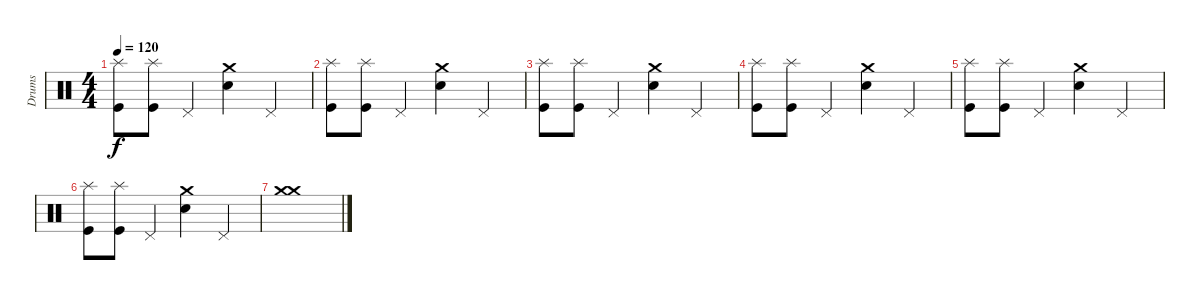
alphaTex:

\track ("Drums" "Drums") {instrument percussion}
\staff {score}
\articulation defaults
\ts (4 4)
\tempo 120
\clef neutral
\ks c
("Splash (hit)" "Kick (hit)").8{dy f} ("Splash (hit)" "Kick (hit)").8 "Pedal Hi-Hat (hit)".4 ("Crash medium (hit)" "Snare (hit) 2").4 "Pedal Hi-Hat (hit)".4 |
("Splash (hit)" "Kick (hit)").8 ("Splash (hit)" "Kick (hit)").8 "Pedal Hi-Hat (hit)".4 ("Crash medium (hit)" "Snare (hit) 2").4 "Pedal Hi-Hat (hit)".4 |
("Splash (hit)" "Kick (hit)").8 ("Splash (hit)" "Kick (hit)").8 "Pedal Hi-Hat (hit)".4 ("Crash medium (hit)" "Snare (hit) 2").4 "Pedal Hi-Hat (hit)".4 |
("Splash (hit)" "Kick (hit)").8 ("Splash (hit)" "Kick (hit)").8 "Pedal Hi-Hat (hit)".4 ("Crash medium (hit)" "Snare (hit) 2").4 "Pedal Hi-Hat (hit)".4 |
("Splash (hit)" "Kick (hit)").8 ("Splash (hit)" "Kick (hit)").8 "Pedal Hi-Hat (hit)".4 ("Crash medium (hit)" "Snare (hit) 2").4 "Pedal Hi-Hat (hit)".4 |
("Splash (hit)" "Kick (hit)").8 ("Splash (hit)" "Kick (hit)").8 "Pedal Hi-Hat (hit)".4 ("Crash medium (hit)" "Snare (hit) 2").4 "Pedal Hi-Hat (hit)".4 |
("Crash medium (hit)" "Crash medium (hit)").1
